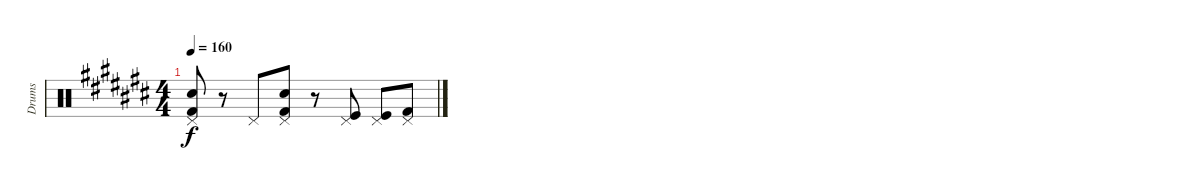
\track ("Drums" "Drums") {instrument percussion}
\staff {score}
\articulation defaults
\ts (4 4)
\tempo 160
\clef neutral
\ks c#
("Pedal Hi-Hat (hit)" "Electric Snare (hit)" "Kick (hit) 2").8{dy f} r.8 "Pedal Hi-Hat (hit)".8 ("Pedal Hi-Hat (hit)" "Electric Snare (hit)" "Kick (hit) 2").8 r.8 ("Pedal Hi-Hat (hit)" "Kick (hit)").8 ("Pedal Hi-Hat (hit)" "Kick (hit)").8 ("Pedal Hi-Hat (hit)" "Kick (hit) 2").8
